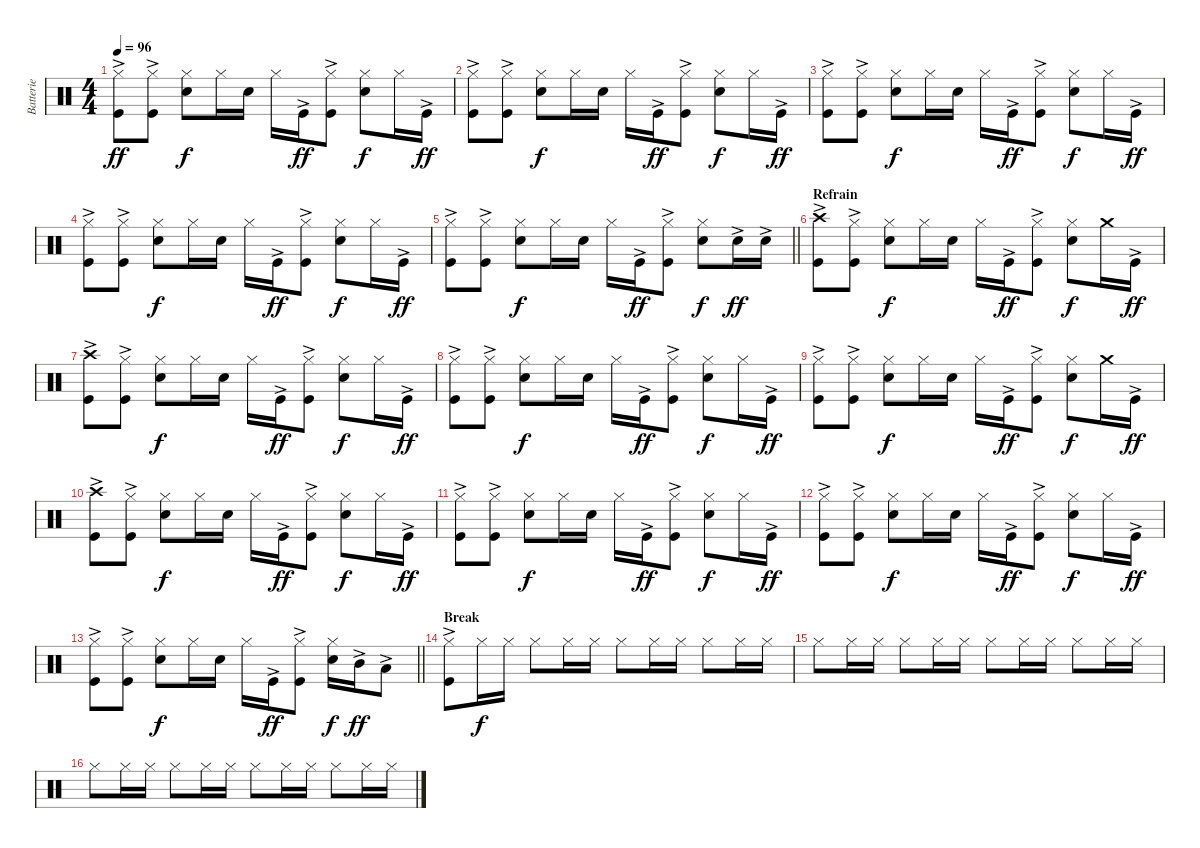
\track ("Batterie" "Batterie") {instrument percussion}
\staff {score}
\articulation defaults
\ts (4 4)
\tempo 96
\clef neutral
\ks c
("Hi-Hat (closed)" "Kick (hit)"{ac}).8{dy ff} ("Hi-Hat (closed)" "Kick (hit)"{ac}).8 ("Hi-Hat (closed)" "Snare (hit) 2").8{dy f} "Hi-Hat (closed)".16 "Snare (hit) 2".16 "Hi-Hat (closed)".16 "Kick (hit)"{ac}.16{dy ff} ("Hi-Hat (closed)" "Kick (hit)"{ac}).8 ("Hi-Hat (closed)" "Snare (hit) 2").8{dy f} "Hi-Hat (closed)".16 "Kick (hit)"{ac}.16{dy ff} |
("Hi-Hat (closed)" "Kick (hit)"{ac}).8 ("Hi-Hat (closed)" "Kick (hit)"{ac}).8 ("Hi-Hat (closed)" "Snare (hit) 2").8{dy f} "Hi-Hat (closed)".16 "Snare (hit) 2".16 "Hi-Hat (closed)".16 "Kick (hit)"{ac}.16{dy ff} ("Hi-Hat (closed)" "Kick (hit)"{ac}).8 ("Hi-Hat (closed)" "Snare (hit) 2").8{dy f} "Hi-Hat (closed)".16 "Kick (hit)"{ac}.16{dy ff} |
("Hi-Hat (closed)" "Kick (hit)"{ac}).8 ("Hi-Hat (closed)" "Kick (hit)"{ac}).8 ("Hi-Hat (closed)" "Snare (hit) 2").8{dy f} "Hi-Hat (closed)".16 "Snare (hit) 2".16 "Hi-Hat (closed)".16 "Kick (hit)"{ac}.16{dy ff} ("Hi-Hat (closed)" "Kick (hit)"{ac}).8 ("Hi-Hat (closed)" "Snare (hit) 2").8{dy f} "Hi-Hat (closed)".16 "Kick (hit)"{ac}.16{dy ff} |
("Hi-Hat (closed)" "Kick (hit)"{ac}).8 ("Hi-Hat (closed)" "Kick (hit)"{ac}).8 ("Hi-Hat (closed)" "Snare (hit) 2").8{dy f} "Hi-Hat (closed)".16 "Snare (hit) 2".16 "Hi-Hat (closed)".16 "Kick (hit)"{ac}.16{dy ff} ("Hi-Hat (closed)" "Kick (hit)"{ac}).8 ("Hi-Hat (closed)" "Snare (hit) 2").8{dy f} "Hi-Hat (closed)".16 "Kick (hit)"{ac}.16{dy ff} |
\barLineRight lightlight
("Hi-Hat (closed)" "Kick (hit)"{ac}).8 ("Hi-Hat (closed)" "Kick (hit)"{ac}).8 ("Hi-Hat (closed)" "Snare (hit) 2").8{dy f} "Hi-Hat (closed)".16 "Snare (hit) 2".16 "Hi-Hat (closed)".16 "Kick (hit)"{ac}.16{dy ff} ("Hi-Hat (closed)" "Kick (hit)"{ac}).8 ("Hi-Hat (closed)" "Snare (hit) 2").8{dy f} "Snare (hit) 2"{ac}.16{dy ff} "Snare (hit) 2"{ac}.16 |
\section ("" "Refrain")
("Crash high (hit)" "Kick (hit)"{ac}).8 ("Hi-Hat (closed)" "Kick (hit)"{ac}).8 ("Hi-Hat (closed)" "Snare (hit) 2").8{dy f} "Hi-Hat (closed)".16 "Snare (hit) 2".16 "Hi-Hat (closed)".16 "Kick (hit)"{ac}.16{dy ff} ("Hi-Hat (closed)" "Kick (hit)"{ac}).8 ("Hi-Hat (closed)" "Snare (hit) 2").8{dy f} "Crash medium (hit)".16 "Kick (hit)"{ac}.16{dy ff} |
("Crash high (hit)" "Kick (hit)"{ac}).8 ("Hi-Hat (closed)" "Kick (hit)"{ac}).8 ("Hi-Hat (closed)" "Snare (hit) 2").8{dy f} "Hi-Hat (closed)".16 "Snare (hit) 2".16 "Hi-Hat (closed)".16 "Kick (hit)"{ac}.16{dy ff} ("Hi-Hat (closed)" "Kick (hit)"{ac}).8 ("Hi-Hat (closed)" "Snare (hit) 2").8{dy f} "Hi-Hat (closed)".16 "Kick (hit)"{ac}.16{dy ff} |
("Hi-Hat (closed)" "Kick (hit)"{ac}).8 ("Hi-Hat (closed)" "Kick (hit)"{ac}).8 ("Hi-Hat (closed)" "Snare (hit) 2").8{dy f} "Hi-Hat (closed)".16 "Snare (hit) 2".16 "Hi-Hat (closed)".16 "Kick (hit)"{ac}.16{dy ff} ("Hi-Hat (closed)" "Kick (hit)"{ac}).8 ("Hi-Hat (closed)" "Snare (hit) 2").8{dy f} "Hi-Hat (closed)".16 "Kick (hit)"{ac}.16{dy ff} |
("Hi-Hat (closed)" "Kick (hit)"{ac}).8 ("Hi-Hat (closed)" "Kick (hit)"{ac}).8 ("Hi-Hat (closed)" "Snare (hit) 2").8{dy f} "Hi-Hat (closed)".16 "Snare (hit) 2".16 "Hi-Hat (closed)".16 "Kick (hit)"{ac}.16{dy ff} ("Hi-Hat (closed)" "Kick (hit)"{ac}).8 ("Hi-Hat (closed)" "Snare (hit) 2").8{dy f} "Crash medium (hit)".16 "Kick (hit)"{ac}.16{dy ff} |
("Crash high (hit)" "Kick (hit)"{ac}).8 ("Hi-Hat (closed)" "Kick (hit)"{ac}).8 ("Hi-Hat (closed)" "Snare (hit) 2").8{dy f} "Hi-Hat (closed)".16 "Snare (hit) 2".16 "Hi-Hat (closed)".16 "Kick (hit)"{ac}.16{dy ff} ("Hi-Hat (closed)" "Kick (hit)"{ac}).8 ("Hi-Hat (closed)" "Snare (hit) 2").8{dy f} "Hi-Hat (closed)".16 "Kick (hit)"{ac}.16{dy ff} |
("Hi-Hat (closed)" "Kick (hit)"{ac}).8 ("Hi-Hat (closed)" "Kick (hit)"{ac}).8 ("Hi-Hat (closed)" "Snare (hit) 2").8{dy f} "Hi-Hat (closed)".16 "Snare (hit) 2".16 "Hi-Hat (closed)".16 "Kick (hit)"{ac}.16{dy ff} ("Hi-Hat (closed)" "Kick (hit)"{ac}).8 ("Hi-Hat (closed)" "Snare (hit) 2").8{dy f} "Hi-Hat (closed)".16 "Kick (hit)"{ac}.16{dy ff} |
("Hi-Hat (closed)" "Kick (hit)"{ac}).8 ("Hi-Hat (closed)" "Kick (hit)"{ac}).8 ("Hi-Hat (closed)" "Snare (hit) 2").8{dy f} "Hi-Hat (closed)".16 "Snare (hit) 2".16 "Hi-Hat (closed)".16 "Kick (hit)"{ac}.16{dy ff} ("Hi-Hat (closed)" "Kick (hit)"{ac}).8 ("Hi-Hat (closed)" "Snare (hit) 2").8{dy f} "Hi-Hat (closed)".16 "Kick (hit)"{ac}.16{dy ff} |
\barLineRight lightlight
("Hi-Hat (closed)" "Kick (hit)"{ac}).8 ("Hi-Hat (closed)" "Kick (hit)"{ac}).8 ("Hi-Hat (closed)" "Snare (hit) 2").8{dy f} "Hi-Hat (closed)".16 "Snare (hit) 2".16 "Hi-Hat (closed)".16 "Kick (hit)"{ac}.16{dy ff} ("Hi-Hat (closed)" "Kick (hit)"{ac}).8 ("Hi-Hat (closed)" "Snare (hit) 2").16{dy f} "Mid Tom (hit)"{ac}.16{dy ff} "Low Tom (hit)"{ac}.8 |
\section ("" "Break")
("Hi-Hat (closed)" "Kick (hit)"{ac}).8 "Hi-Hat (closed)".16{dy f} "Hi-Hat (closed)".16 "Hi-Hat (closed)".8 "Hi-Hat (closed)".16 "Hi-Hat (closed)".16 "Hi-Hat (closed)".8 "Hi-Hat (closed)".16 "Hi-Hat (closed)".16 "Hi-Hat (closed)".8 "Hi-Hat (closed)".16 "Hi-Hat (closed)".16 |
"Hi-Hat (closed)".8 "Hi-Hat (closed)".16 "Hi-Hat (closed)".16 "Hi-Hat (closed)".8 "Hi-Hat (closed)".16 "Hi-Hat (closed)".16 "Hi-Hat (closed)".8 "Hi-Hat (closed)".16 "Hi-Hat (closed)".16 "Hi-Hat (closed)".8 "Hi-Hat (closed)".16 "Hi-Hat (closed)".16 |
"Hi-Hat (closed)".8 "Hi-Hat (closed)".16 "Hi-Hat (closed)".16 "Hi-Hat (closed)".8 "Hi-Hat (closed)".16 "Hi-Hat (closed)".16 "Hi-Hat (closed)".8 "Hi-Hat (closed)".16 "Hi-Hat (closed)".16 "Hi-Hat (closed)".8 "Hi-Hat (closed)".16 "Hi-Hat (closed)".16
